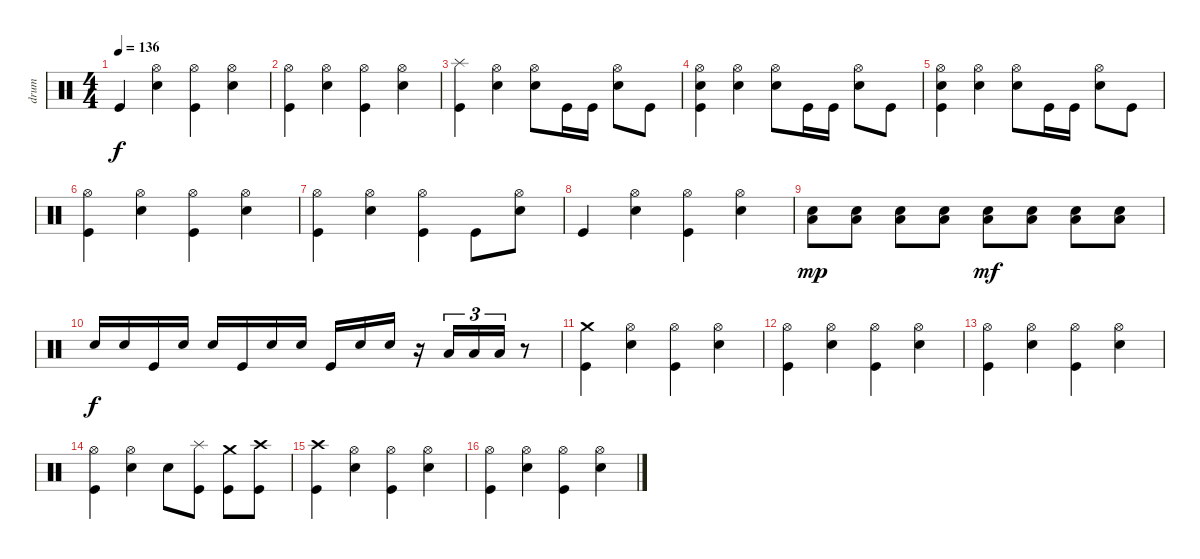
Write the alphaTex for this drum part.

\track ("drum" "drum") {instrument percussion}
\staff {score}
\articulation defaults
\ts (4 4)
\tempo 136
\clef neutral
\ks c "Kick (hit)".4{dy f}
("Electric Snare (hit)" "Hi-Hat (open)").4 ("Kick (hit)" "Hi-Hat (open)").4 ("Electric Snare (hit)" "Hi-Hat (open)").4 |
("Kick (hit)" "Hi-Hat (open)").4 ("Electric Snare (hit)" "Hi-Hat (open)").4 ("Kick (hit)" "Hi-Hat (open)").4 ("Electric Snare (hit)" "Hi-Hat (open)").4 |
("Kick (hit)" "Splash (hit)").4 ("Electric Snare (hit)" "Hi-Hat (open)").4 ("Electric Snare (hit)" "Hi-Hat (open)").8 "Kick (hit)".16 "Kick (hit)".16 ("Electric Snare (hit)" "Hi-Hat (open)").8 "Kick (hit)".8 |
("Kick (hit)" "Electric Snare (hit)" "Hi-Hat (open)").4 ("Electric Snare (hit)" "Hi-Hat (open)").4 ("Electric Snare (hit)" "Hi-Hat (open)").8 "Kick (hit)".16 "Kick (hit)".16 ("Electric Snare (hit)" "Hi-Hat (open)").8 "Kick (hit)".8 |
("Kick (hit)" "Electric Snare (hit)" "Hi-Hat (open)").4 ("Electric Snare (hit)" "Hi-Hat (open)").4 ("Electric Snare (hit)" "Hi-Hat (open)").8 "Kick (hit)".16 "Kick (hit)".16 ("Electric Snare (hit)" "Hi-Hat (open)").8 "Kick (hit)".8 |
("Kick (hit)" "Hi-Hat (open)").4 ("Electric Snare (hit)" "Hi-Hat (open)").4 ("Kick (hit)" "Hi-Hat (open)").4 ("Electric Snare (hit)" "Hi-Hat (open)").4 |
("Kick (hit)" "Hi-Hat (open)").4 ("Electric Snare (hit)" "Hi-Hat (open)").4 ("Kick (hit)" "Hi-Hat (open)").4 "Kick (hit)".8 ("Electric Snare (hit)" "Hi-Hat (open)").8 |
"Kick (hit)".4 ("Electric Snare (hit)" "Hi-Hat (open)").4 ("Kick (hit)" "Hi-Hat (open)").4 ("Electric Snare (hit)" "Hi-Hat (open)").4 |
("Electric Snare (hit)" "Low Floor Tom (hit)").8{dy mp} ("Electric Snare (hit)" "Low Floor Tom (hit)").8 ("Electric Snare (hit)" "Low Floor Tom (hit)").8 ("Electric Snare (hit)" "Low Floor Tom (hit)").8 ("Electric Snare (hit)" "Low Floor Tom (hit)").8{dy mf} ("Electric Snare (hit)" "Low Floor Tom (hit)").8 ("Electric Snare (hit)" "Low Floor Tom (hit)").8 ("Electric Snare (hit)" "Low Floor Tom (hit)").8 |
"Electric Snare (hit)".16{dy f} "Electric Snare (hit)".16 "Kick (hit)".16 "Electric Snare (hit)".16 "Electric Snare (hit)".16 "Kick (hit)".16 "Electric Snare (hit)".16 "Electric Snare (hit)".16 "Kick (hit)".16 "Electric Snare (hit)".16 "Electric Snare (hit)".16 r.16 "Low Floor Tom (hit)".16{tu (3 2)} "Low Floor Tom (hit)".16{tu (3 2)} "Low Floor Tom (hit)".16{tu (3 2)} r.8 |
("Kick (hit)" "Crash medium (hit)").4 ("Electric Snare (hit)" "Hi-Hat (open)").4 ("Kick (hit)" "Hi-Hat (open)").4 ("Electric Snare (hit)" "Hi-Hat (open)").4 |
("Kick (hit)" "Hi-Hat (open)").4 ("Electric Snare (hit)" "Hi-Hat (open)").4 ("Kick (hit)" "Hi-Hat (open)").4 ("Electric Snare (hit)" "Hi-Hat (open)").4 |
("Kick (hit)" "Hi-Hat (open)").4 ("Electric Snare (hit)" "Hi-Hat (open)").4 ("Kick (hit)" "Hi-Hat (open)").4 ("Electric Snare (hit)" "Hi-Hat (open)").4 |
("Kick (hit)" "Hi-Hat (open)").4 ("Electric Snare (hit)" "Hi-Hat (open)").4 "Electric Snare (hit)".8 ("Kick (hit)" "Splash (hit)").8 ("Kick (hit)" "Crash medium (hit)").8 ("Kick (hit)" "Crash high (hit)").8 |
("Kick (hit)" "Crash high (hit)").4 ("Electric Snare (hit)" "Hi-Hat (open)").4 ("Kick (hit)" "Hi-Hat (open)").4 ("Electric Snare (hit)" "Hi-Hat (open)").4 |
("Kick (hit)" "Hi-Hat (open)").4 ("Electric Snare (hit)" "Hi-Hat (open)").4 ("Kick (hit)" "Hi-Hat (open)").4 ("Electric Snare (hit)" "Hi-Hat (open)").4
